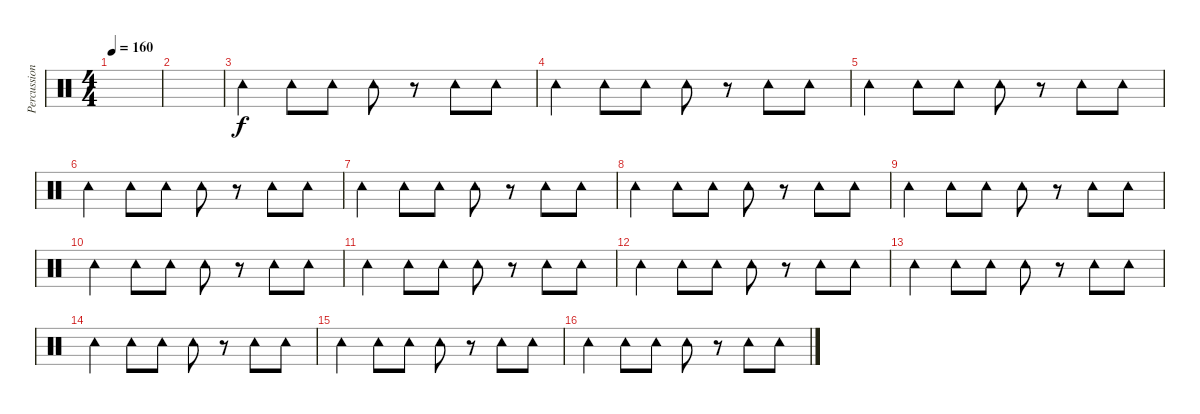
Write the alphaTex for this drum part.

\track ("Percussions" "Percussion") {instrument percussion}
\staff {score}
\articulation defaults
\ts (4 4)
\tempo 160
\clef neutral
\ks c
|
|
"Tambourine (hit)".4 "Tambourine (hit)".8 "Tambourine (hit)".8 "Tambourine (hit)".8 r.8 "Tambourine (hit)".8 "Tambourine (hit)".8 |
"Tambourine (hit)".4 "Tambourine (hit)".8 "Tambourine (hit)".8 "Tambourine (hit)".8 r.8 "Tambourine (hit)".8 "Tambourine (hit)".8 |
"Tambourine (hit)".4 "Tambourine (hit)".8 "Tambourine (hit)".8 "Tambourine (hit)".8 r.8 "Tambourine (hit)".8 "Tambourine (hit)".8 |
"Tambourine (hit)".4 "Tambourine (hit)".8 "Tambourine (hit)".8 "Tambourine (hit)".8 r.8 "Tambourine (hit)".8 "Tambourine (hit)".8 |
"Tambourine (hit)".4 "Tambourine (hit)".8 "Tambourine (hit)".8 "Tambourine (hit)".8 r.8 "Tambourine (hit)".8 "Tambourine (hit)".8 |
"Tambourine (hit)".4 "Tambourine (hit)".8 "Tambourine (hit)".8 "Tambourine (hit)".8 r.8 "Tambourine (hit)".8 "Tambourine (hit)".8 |
"Tambourine (hit)".4 "Tambourine (hit)".8 "Tambourine (hit)".8 "Tambourine (hit)".8 r.8 "Tambourine (hit)".8 "Tambourine (hit)".8 |
"Tambourine (hit)".4 "Tambourine (hit)".8 "Tambourine (hit)".8 "Tambourine (hit)".8 r.8 "Tambourine (hit)".8 "Tambourine (hit)".8 |
"Tambourine (hit)".4 "Tambourine (hit)".8 "Tambourine (hit)".8 "Tambourine (hit)".8 r.8 "Tambourine (hit)".8 "Tambourine (hit)".8 |
"Tambourine (hit)".4 "Tambourine (hit)".8 "Tambourine (hit)".8 "Tambourine (hit)".8 r.8 "Tambourine (hit)".8 "Tambourine (hit)".8 |
"Tambourine (hit)".4 "Tambourine (hit)".8 "Tambourine (hit)".8 "Tambourine (hit)".8 r.8 "Tambourine (hit)".8 "Tambourine (hit)".8 |
"Tambourine (hit)".4 "Tambourine (hit)".8 "Tambourine (hit)".8 "Tambourine (hit)".8 r.8 "Tambourine (hit)".8 "Tambourine (hit)".8 |
"Tambourine (hit)".4 "Tambourine (hit)".8 "Tambourine (hit)".8 "Tambourine (hit)".8 r.8 "Tambourine (hit)".8 "Tambourine (hit)".8 |
"Tambourine (hit)".4 "Tambourine (hit)".8 "Tambourine (hit)".8 "Tambourine (hit)".8 r.8 "Tambourine (hit)".8 "Tambourine (hit)".8
